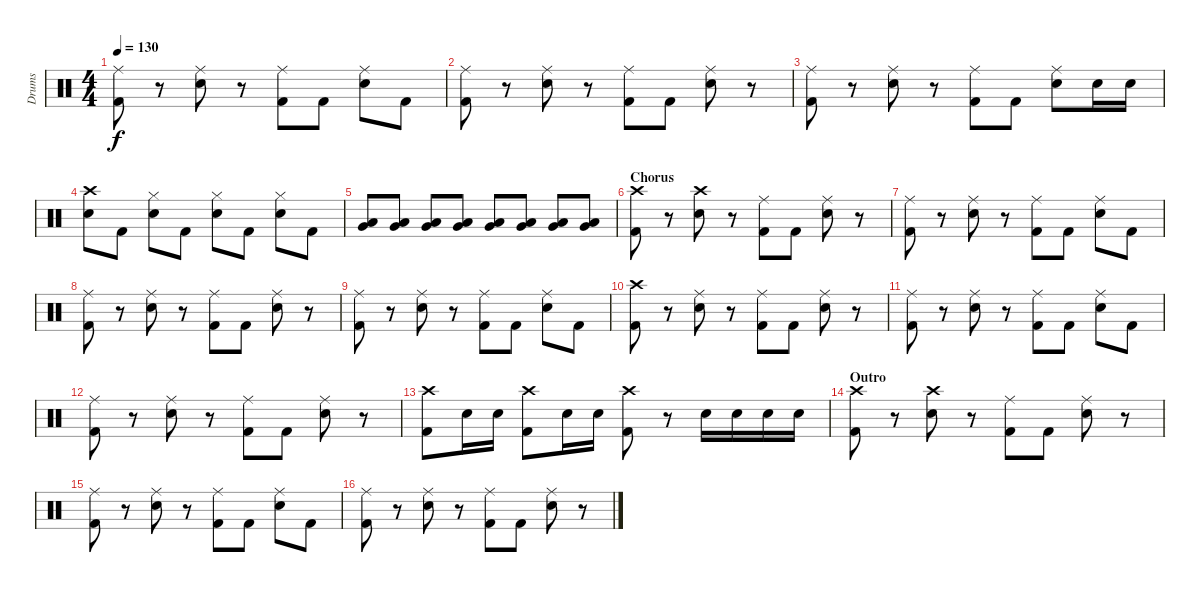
\track ("Drums" "Drums") {instrument percussion}
\staff {score}
\articulation defaults
\ts (4 4)
\tempo 130
\clef neutral
\ks c
("Ride (middle)" "Kick (hit) 2").8{dy f} r.8 ("Ride (middle)" "Electric Snare (hit)").8 r.8 ("Ride (middle)" "Kick (hit) 2").8 "Kick (hit) 2".8 ("Ride (middle)" "Electric Snare (hit)").8 "Kick (hit) 2".8 |
("Ride (middle)" "Kick (hit) 2").8 r.8 ("Ride (middle)" "Electric Snare (hit)").8 r.8 ("Ride (middle)" "Kick (hit) 2").8 "Kick (hit) 2".8 ("Ride (middle)" "Electric Snare (hit)").8 r.8 |
("Ride (middle)" "Kick (hit) 2").8 r.8 ("Ride (middle)" "Electric Snare (hit)").8 r.8 ("Ride (middle)" "Kick (hit) 2").8 "Kick (hit) 2".8 ("Ride (middle)" "Electric Snare (hit)").8 "Electric Snare (hit)".16 "Electric Snare (hit)".16 |
("Crash high (hit)" "Electric Snare (hit)").8 "Kick (hit) 2".8 ("Hi-Hat (closed)" "Electric Snare (hit)").8 "Kick (hit) 2".8 ("Hi-Hat (closed)" "Electric Snare (hit)").8 "Kick (hit) 2".8 ("Hi-Hat (closed)" "Electric Snare (hit)").8 "Kick (hit) 2".8 |
("Very Low Tom (hit)" "Low Tom (hit)").8 ("Very Low Tom (hit)" "Low Tom (hit)").8 ("Very Low Tom (hit)" "Low Tom (hit)").8 ("Very Low Tom (hit)" "Low Tom (hit)").8 ("Very Low Tom (hit)" "Low Tom (hit)").8 ("Very Low Tom (hit)" "Low Tom (hit)").8 ("Very Low Tom (hit)" "Low Tom (hit)").8 ("Very Low Tom (hit)" "Low Tom (hit)").8 |
\section ("" "Chorus")
("Crash high (hit)" "Kick (hit) 2").8 r.8 ("Crash high (hit)" "Electric Snare (hit)").8 r.8 ("Ride (middle)" "Kick (hit) 2").8 "Kick (hit) 2".8 ("Ride (middle)" "Electric Snare (hit)").8 r.8 |
("Ride (middle)" "Kick (hit) 2").8 r.8 ("Ride (middle)" "Electric Snare (hit)").8 r.8 ("Ride (middle)" "Kick (hit) 2").8 "Kick (hit) 2".8 ("Ride (middle)" "Electric Snare (hit)").8 "Kick (hit) 2".8 |
("Ride (middle)" "Kick (hit) 2").8 r.8 ("Ride (middle)" "Electric Snare (hit)").8 r.8 ("Ride (middle)" "Kick (hit) 2").8 "Kick (hit) 2".8 ("Ride (middle)" "Electric Snare (hit)").8 r.8 |
("Ride (middle)" "Kick (hit) 2").8 r.8 ("Ride (middle)" "Electric Snare (hit)").8 r.8 ("Ride (middle)" "Kick (hit) 2").8 "Kick (hit) 2".8 ("Ride (middle)" "Electric Snare (hit)").8 "Kick (hit) 2".8 |
("Crash high (hit)" "Kick (hit) 2").8 r.8 ("Ride (middle)" "Electric Snare (hit)").8 r.8 ("Ride (middle)" "Kick (hit) 2").8 "Kick (hit) 2".8 ("Ride (middle)" "Electric Snare (hit)").8 r.8 |
("Ride (middle)" "Kick (hit) 2").8 r.8 ("Ride (middle)" "Electric Snare (hit)").8 r.8 ("Ride (middle)" "Kick (hit) 2").8 "Kick (hit) 2".8 ("Ride (middle)" "Electric Snare (hit)").8 "Kick (hit) 2".8 |
("Ride (middle)" "Kick (hit) 2").8 r.8 ("Ride (middle)" "Electric Snare (hit)").8 r.8 ("Ride (middle)" "Kick (hit) 2").8 "Kick (hit) 2".8 ("Ride (middle)" "Electric Snare (hit)").8 r.8 |
("Crash high (hit)" "Kick (hit) 2").8 "Electric Snare (hit)".16 "Electric Snare (hit)".16 ("Crash high (hit)" "Kick (hit) 2").8 "Electric Snare (hit)".16 "Electric Snare (hit)".16 ("Crash high (hit)" "Kick (hit) 2").8 r.8 "Electric Snare (hit)".16 "Electric Snare (hit)".16 "Electric Snare (hit)".16 "Electric Snare (hit)".16 |
\section ("" "Outro")
("Crash high (hit)" "Kick (hit) 2").8 r.8 ("Crash high (hit)" "Electric Snare (hit)").8 r.8 ("Ride (middle)" "Kick (hit) 2").8 "Kick (hit) 2".8 ("Ride (middle)" "Electric Snare (hit)").8 r.8 |
("Ride (middle)" "Kick (hit) 2").8 r.8 ("Ride (middle)" "Electric Snare (hit)").8 r.8 ("Ride (middle)" "Kick (hit) 2").8 "Kick (hit) 2".8 ("Ride (middle)" "Electric Snare (hit)").8 "Kick (hit) 2".8 |
("Ride (middle)" "Kick (hit) 2").8 r.8 ("Ride (middle)" "Electric Snare (hit)").8 r.8 ("Ride (middle)" "Kick (hit) 2").8 "Kick (hit) 2".8 ("Ride (middle)" "Electric Snare (hit)").8 r.8
